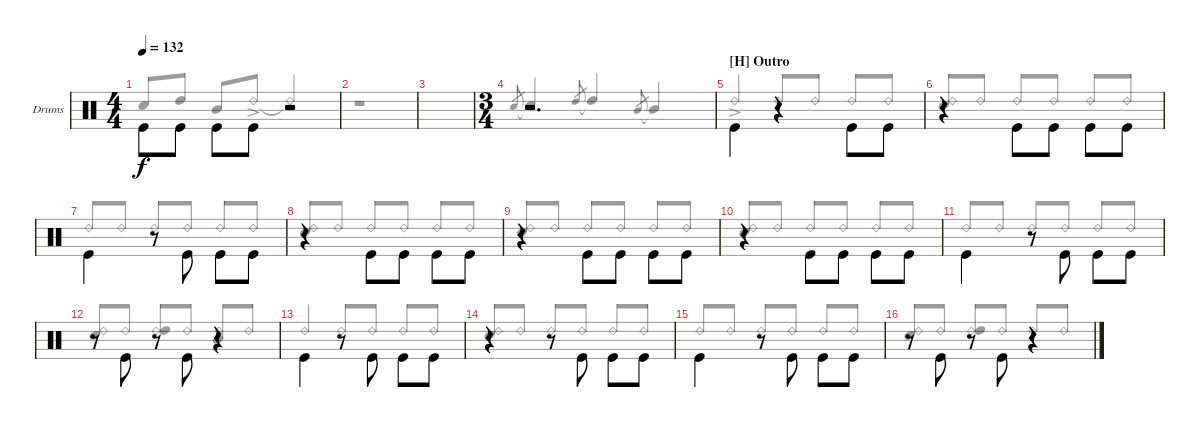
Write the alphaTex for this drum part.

\bracketExtendMode groupsimilarinstruments
\firstSystemTrackNameOrientation horizontal
\otherSystemsTrackNameOrientation horizontal
\track ("Drum" "Drums") {instrument percussion}
\staff {score}
\articulation defaults
\voice
\ts (4 4)
\tempo 132
\clef neutral
\scale
0.973518
\ks aminor "Kick (hit)".8{dy f beam invert} "Kick (hit)".8 "Kick (hit)".8{beam invert} "Kick (hit)".8
r.2 |
\scale
1.02648 |
\scale
0.973518 |
\ts (3 4)
\scale
1.02648 r.2{d} |
\section ("H" "Outro")
\scale
0.973518 "Kick (hit)".4{beam invert} r.4{beam invert} "Kick (hit)".8{beam invert} "Kick (hit)".8 |
\scale
1.02648 r.4{beam invert} "Kick (hit)".8{beam invert} "Kick (hit)".8 "Kick (hit)".8{beam invert} "Kick (hit)".8 |
\scale
0.973518 "Kick (hit)".4{beam invert} r.8{beam invert} "Kick (hit)".8{beam invert} "Kick (hit)".8{beam invert} "Kick (hit)".8 |
\scale
1.02648 r.4{beam invert} "Kick (hit)".8{beam invert} "Kick (hit)".8 "Kick (hit)".8{beam invert} "Kick (hit)".8 |
\scale
0.973518 r.4{beam invert} "Kick (hit)".8{beam invert} "Kick (hit)".8 "Kick (hit)".8{beam invert} "Kick (hit)".8 |
\scale
1.02648 r.4{beam invert} "Kick (hit)".8{beam invert} "Kick (hit)".8 "Kick (hit)".8{beam invert} "Kick (hit)".8 |
\scale
0.973518 "Kick (hit)".4{beam invert} r.8{beam invert} "Kick (hit)".8{beam invert} "Kick (hit)".8{beam invert} "Kick (hit)".8 |
\scale
1.02648 r.8{beam invert} "Kick (hit)".8{beam invert} r.8{beam invert} "Kick (hit)".8{beam invert} r.4 |
\scale
0.973518 "Kick (hit)".4{beam invert} r.8{beam invert} "Kick (hit)".8{beam invert} "Kick (hit)".8{beam invert} "Kick (hit)".8 |
\scale
1.02648 r.4{beam invert} r.8{beam invert} "Kick (hit)".8{beam invert} "Kick (hit)".8{beam invert} "Kick (hit)".8 |
\scale
0.973518 "Kick (hit)".4{beam invert} r.8{beam invert} "Kick (hit)".8{beam invert} "Kick (hit)".8{beam invert} "Kick (hit)".8 |
\scale
1.02648 r.8{beam invert} "Kick (hit)".8{beam invert} r.8{beam invert} "Kick (hit)".8{beam invert} r.4
\voice
\clef neutral
\ottava regular
\simile none
\scale
0.973518
\ks aminor "Snare (hit) 2".8{dy f beam invert} "High Tom (hit)".8 "Mid Tom (hit)".8{beam invert} "Ride (bell) 2"{ac}.8 "Ride (bell) 2"{t}.2{beam invert}
|
\scale
1.02648 r.1 |
\scale
0.973518 |
\scale
1.02648 "Snare (hit) 2".8{gr beam invert} "Snare (hit) 2"{t}.4{beam invert} "High Tom (hit)".8{gr beam invert} "High Tom (hit)"{t}.4{beam invert} "Mid Tom (hit)".8{gr beam invert} "Mid Tom (hit)"{t}.4{beam invert} |
\scale
0.973518 "Ride (bell) 2"{ac}.4{beam invert} "Ride (bell) 2".8{beam invert} "Ride (bell) 2".8 "Ride (bell) 2".8{beam invert} "Ride (bell) 2".8 |
\scale
1.02648 ("Snare (hit) 2" "Ride (bell) 2").8 "Ride (bell) 2".8{beam invert} "Ride (bell) 2".8 "Ride (bell) 2".8{beam invert} "Ride (bell) 2".8{beam invert} "Ride (bell) 2".8 |
\scale
0.973518 "Ride (bell) 2".8 "Ride (bell) 2".8{beam invert} "Ride (bell) 2".8{beam invert} "Ride (bell) 2".8 "Ride (bell) 2".8{beam invert} "Ride (bell) 2".8 |
\scale
1.02648 ("Snare (hit) 2" "Ride (bell) 2").8 "Ride (bell) 2".8{beam invert} "Ride (bell) 2".8 "Ride (bell) 2".8{beam invert} "Ride (bell) 2".8{beam invert} "Ride (bell) 2".8 |
\scale
0.973518 ("Snare (hit) 2" "Ride (bell) 2").8 "Ride (bell) 2".8{beam invert} "Ride (bell) 2".8 "Ride (bell) 2".8{beam invert} "Ride (bell) 2".8{beam invert} "Ride (bell) 2".8 |
\scale
1.02648 ("Snare (hit) 2" "Ride (bell) 2").8 "Ride (bell) 2".8{beam invert} "Ride (bell) 2".8 "Ride (bell) 2".8{beam invert} "Ride (bell) 2".8{beam invert} "Ride (bell) 2".8 |
\scale
0.973518 "Ride (bell) 2".8 "Ride (bell) 2".8{beam invert} "Ride (bell) 2".8{beam invert} "Ride (bell) 2".8 "Ride (bell) 2".8{beam invert} "Ride (bell) 2".8 |
\scale
1.02648 ("Snare (hit) 2" "Ride (bell) 2").8 "Ride (bell) 2".8{beam invert} ("Ride (bell) 2" "High Tom (hit)").8 "Ride (bell) 2".8{beam invert} ("Ride (bell) 2" "Mid Tom (hit)").8{beam invert} "Ride (bell) 2".8 |
\scale
0.973518 "Ride (bell) 2".4{beam invert} "Ride (bell) 2".8{beam invert} "Ride (bell) 2".8 "Ride (bell) 2".8{beam invert} "Ride (bell) 2".8 |
\scale
1.02648 ("Snare (hit) 2" "Ride (bell) 2").8 "Ride (bell) 2".8{beam invert} "Ride (bell) 2".8 "Ride (bell) 2".8{beam invert} "Ride (bell) 2".8{beam invert} "Ride (bell) 2".8 |
\scale
0.973518 "Ride (bell) 2".8 "Ride (bell) 2".8{beam invert} "Ride (bell) 2".8{beam invert} "Ride (bell) 2".8 "Ride (bell) 2".8{beam invert} "Ride (bell) 2".8 |
\scale
1.02648 ("Snare (hit) 2" "Ride (bell) 2").8 "Ride (bell) 2".8{beam invert} ("Ride (bell) 2" "High Tom (hit)").8 "Ride (bell) 2".8{beam invert} "Ride (bell) 2".8{beam invert} "Ride (bell) 2".8
